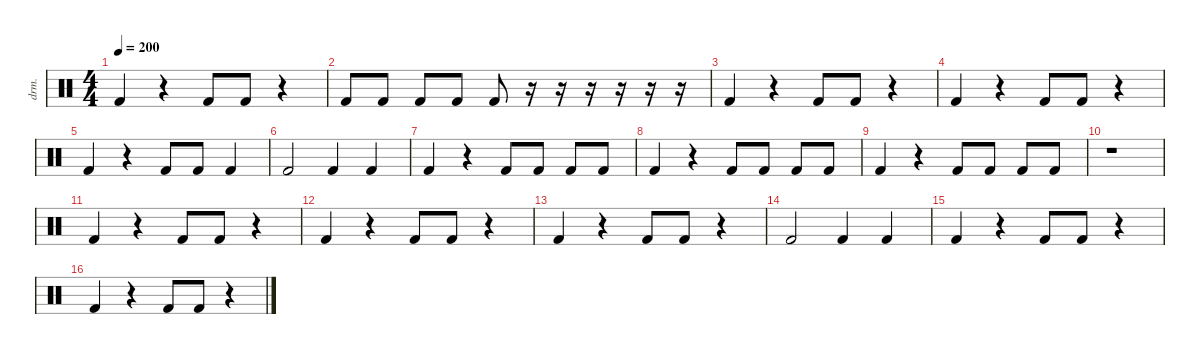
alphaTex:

\defaultSystemsLayout 4
\hideDynamics
\bracketExtendMode nobrackets
\track ("Percussion" "drm.") {instrument percussion}
\staff {score}
\articulation defaults
\ts (4 4)
\tempo 200
\clef neutral
\ks c "Kick (hit) 2".4{dy ff}
r.4 "Kick (hit) 2".8 "Kick (hit) 2".8 r.4 |
"Kick (hit) 2".8 "Kick (hit) 2".8 "Kick (hit) 2".8 "Kick (hit) 2".8 "Kick (hit) 2".8 r.16 r.16 r.16 r.16 r.16 r.16 |
"Kick (hit) 2".4 r.4 "Kick (hit) 2".8 "Kick (hit) 2".8 r.4 |
"Kick (hit) 2".4 r.4 "Kick (hit) 2".8 "Kick (hit) 2".8 r.4 |
"Kick (hit) 2".4 r.4 "Kick (hit) 2".8 "Kick (hit) 2".8 "Kick (hit) 2".4 |
"Kick (hit) 2".2 "Kick (hit) 2".4 "Kick (hit) 2".4 |
"Kick (hit) 2".4 r.4 "Kick (hit) 2".8 "Kick (hit) 2".8 "Kick (hit) 2".8 "Kick (hit) 2".8 |
"Kick (hit) 2".4 r.4 "Kick (hit) 2".8 "Kick (hit) 2".8 "Kick (hit) 2".8 "Kick (hit) 2".8 |
"Kick (hit) 2".4 r.4 "Kick (hit) 2".8 "Kick (hit) 2".8 "Kick (hit) 2".8 "Kick (hit) 2".8 |
r.1 |
"Kick (hit) 2".4 r.4 "Kick (hit) 2".8 "Kick (hit) 2".8 r.4 |
"Kick (hit) 2".4 r.4 "Kick (hit) 2".8 "Kick (hit) 2".8 r.4 |
"Kick (hit) 2".4 r.4 "Kick (hit) 2".8 "Kick (hit) 2".8 r.4 |
"Kick (hit) 2".2 "Kick (hit) 2".4 "Kick (hit) 2".4 |
"Kick (hit) 2".4 r.4 "Kick (hit) 2".8 "Kick (hit) 2".8 r.4 |
"Kick (hit) 2".4 r.4 "Kick (hit) 2".8 "Kick (hit) 2".8 r.4
